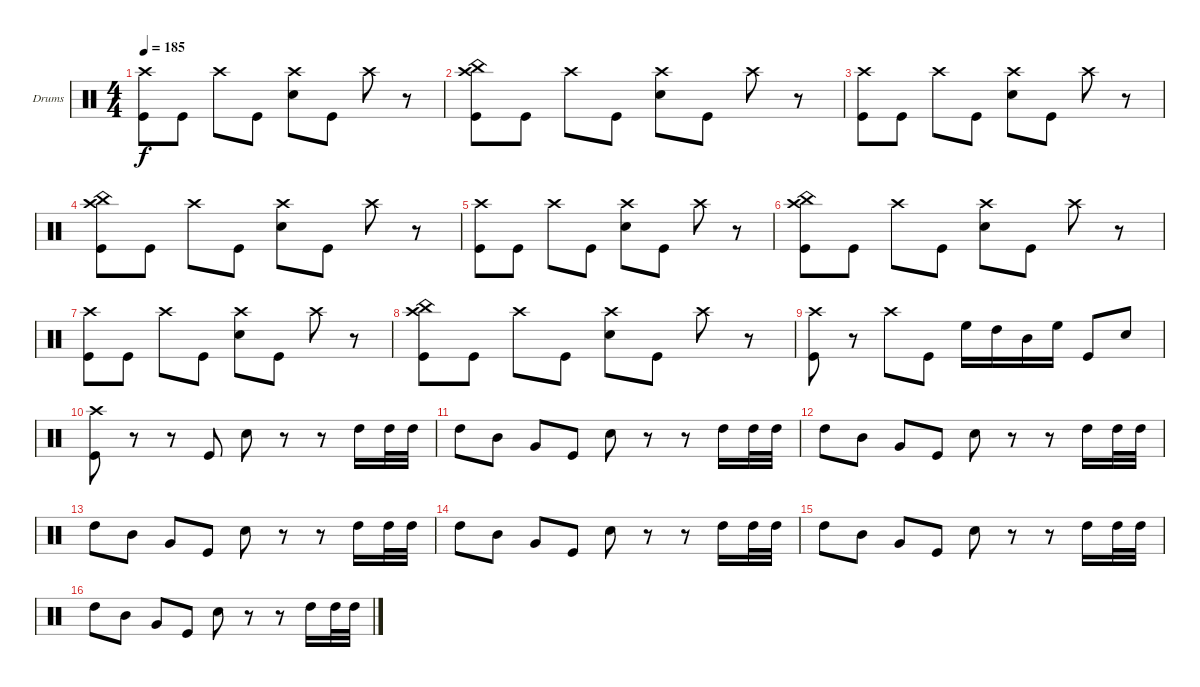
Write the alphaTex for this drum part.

\defaultSystemsLayout 4
\bracketExtendMode nobrackets
\firstSystemTrackNameOrientation horizontal
\otherSystemsTrackNameOrientation horizontal
\track ("Drumkit" "Drums") {instrument percussion}
\staff {score}
\articulation defaults
\ts (4 4)
\tempo 185
\clef neutral
\ks c
("Crash high (hit)" "Kick (hit)").8{dy f} "Kick (hit)".8 "Crash high (hit)".8 "Kick (hit)".8 ("Crash high (hit)" "Snare (hit) 2").8 "Kick (hit)".8 "Crash high (hit)".8 r.8 |
("Crash high (hit)" "China (hit)" "Kick (hit)").8 "Kick (hit)".8 "Crash high (hit)".8 "Kick (hit)".8 ("Crash high (hit)" "Snare (hit) 2").8 "Kick (hit)".8 "Crash high (hit)".8 r.8 |
("Crash high (hit)" "Kick (hit)").8 "Kick (hit)".8 "Crash high (hit)".8 "Kick (hit)".8 ("Crash high (hit)" "Snare (hit) 2").8 "Kick (hit)".8 "Crash high (hit)".8 r.8 |
("Crash high (hit)" "China (hit)" "Kick (hit)").8 "Kick (hit)".8 "Crash high (hit)".8 "Kick (hit)".8 ("Crash high (hit)" "Snare (hit) 2").8 "Kick (hit)".8 "Crash high (hit)".8 r.8 |
("Crash high (hit)" "Kick (hit)").8 "Kick (hit)".8 "Crash high (hit)".8 "Kick (hit)".8 ("Crash high (hit)" "Snare (hit) 2").8 "Kick (hit)".8 "Crash high (hit)".8 r.8 |
("Crash high (hit)" "China (hit)" "Kick (hit)").8 "Kick (hit)".8 "Crash high (hit)".8 "Kick (hit)".8 ("Crash high (hit)" "Snare (hit) 2").8 "Kick (hit)".8 "Crash high (hit)".8 r.8 |
("Crash high (hit)" "Kick (hit)").8 "Kick (hit)".8 "Crash high (hit)".8 "Kick (hit)".8 ("Crash high (hit)" "Snare (hit) 2").8 "Kick (hit)".8 "Crash high (hit)".8 r.8 |
("Crash high (hit)" "China (hit)" "Kick (hit)").8 "Kick (hit)".8 "Crash high (hit)".8 "Kick (hit)".8 ("Crash high (hit)" "Snare (hit) 2").8 "Kick (hit)".8 "Crash high (hit)".8 r.8 |
("Crash high (hit)" "Kick (hit)").8 r.8 "Crash high (hit)".8 "Kick (hit)".8 "High Floor Tom (hit)".16 "High Tom (hit)".16 "Mid Tom (hit)".16 "High Floor Tom (hit)".16 "Kick (hit)".8 "Snare (hit) 2".8 |
("Crash high (hit)" "Kick (hit)").8 r.8 r.8 "Kick (hit)".8 "Snare (hit) 2".8 r.8 r.8 "High Tom (hit)".16 "High Tom (hit)".32 "High Tom (hit)".32 |
"High Tom (hit)".8 "Mid Tom (hit)".8 "Very Low Tom (hit)".8 "Kick (hit)".8 "Snare (hit) 2".8 r.8 r.8 "High Tom (hit)".16 "High Tom (hit)".32 "High Tom (hit)".32 |
"High Tom (hit)".8 "Mid Tom (hit)".8 "Very Low Tom (hit)".8 "Kick (hit)".8 "Snare (hit) 2".8 r.8 r.8 "High Tom (hit)".16 "High Tom (hit)".32 "High Tom (hit)".32 |
"High Tom (hit)".8 "Mid Tom (hit)".8 "Very Low Tom (hit)".8 "Kick (hit)".8 "Snare (hit) 2".8 r.8 r.8 "High Tom (hit)".16 "High Tom (hit)".32 "High Tom (hit)".32 |
"High Tom (hit)".8 "Mid Tom (hit)".8 "Very Low Tom (hit)".8 "Kick (hit)".8 "Snare (hit) 2".8 r.8 r.8 "High Tom (hit)".16 "High Tom (hit)".32 "High Tom (hit)".32 |
"High Tom (hit)".8 "Mid Tom (hit)".8 "Very Low Tom (hit)".8 "Kick (hit)".8 "Snare (hit) 2".8 r.8 r.8 "High Tom (hit)".16 "High Tom (hit)".32 "High Tom (hit)".32 |
"High Tom (hit)".8 "Mid Tom (hit)".8 "Very Low Tom (hit)".8 "Kick (hit)".8 "Snare (hit) 2".8 r.8 r.8 "High Tom (hit)".16 "High Tom (hit)".32 "High Tom (hit)".32
